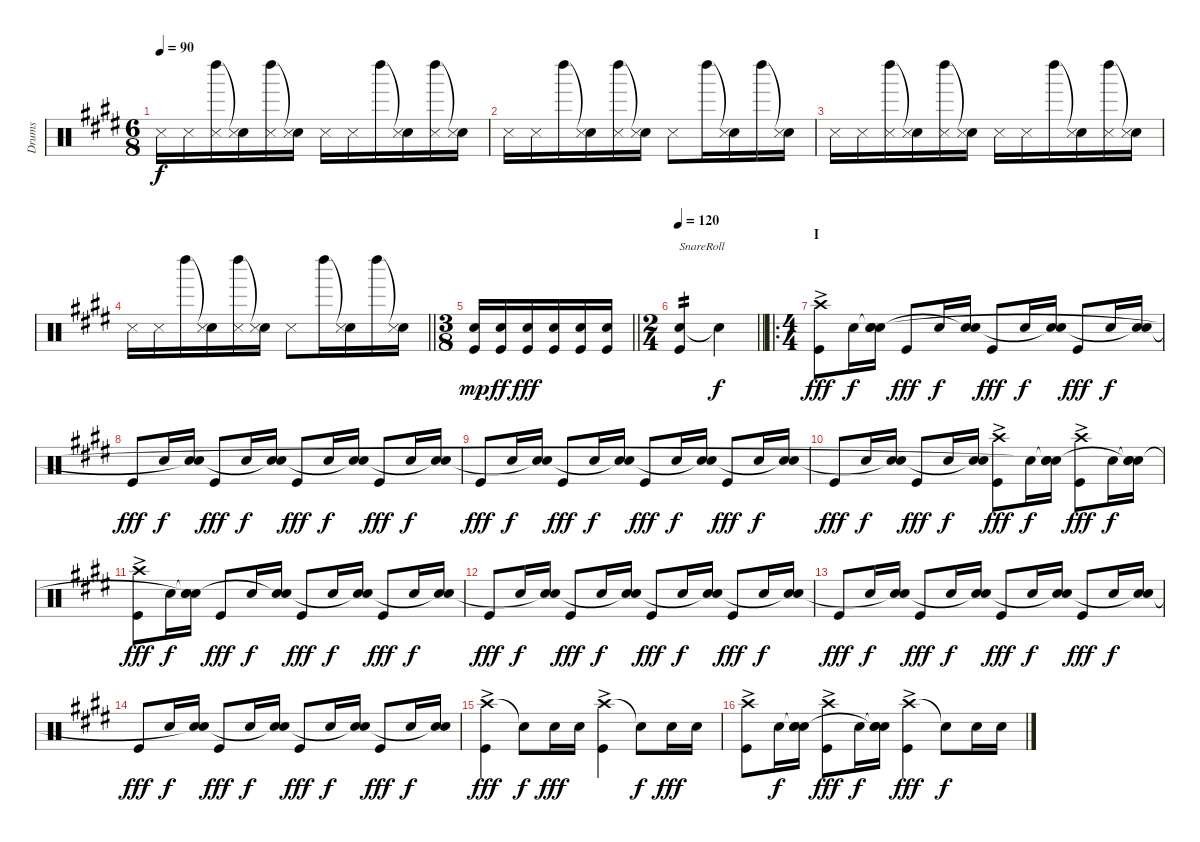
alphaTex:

\track ("Drums" "Drums") {instrument percussion}
\staff {score}
\articulation defaults
\ts (6 8)
\tempo 90
\clef neutral
\ks e "Snare (side stick) 3".16{dy f} "Snare (side stick) 3".16
("Left Maraca (hit)" "Snare (side stick) 3").16 ("Snare (hit)"{t} "Snare (side stick) 3").16 ("Left Maraca (hit)" "Snare (side stick) 3").16 ("Snare (hit)"{t} "Snare (side stick) 3").16 "Snare (side stick) 3".16 "Snare (side stick) 3".16 "Left Maraca (hit)".16 ("Snare (hit)"{t} "Snare (side stick) 3").16 ("Left Maraca (hit)" "Snare (side stick) 3").16 ("Snare (hit)"{t} "Snare (side stick) 3").16 |
"Snare (side stick) 3".16 "Snare (side stick) 3".16 "Left Maraca (hit)".16 ("Snare (hit)"{t} "Snare (side stick) 3").16 ("Left Maraca (hit)" "Snare (side stick) 3").16 ("Snare (hit)"{t} "Snare (side stick) 3").16 "Snare (side stick) 3".8 "Left Maraca (hit)".16 ("Snare (hit)"{t} "Snare (side stick) 3").16 "Left Maraca (hit)".16 ("Snare (hit)"{t} "Snare (side stick) 3").16 |
"Snare (side stick) 3".16 "Snare (side stick) 3".16 ("Left Maraca (hit)" "Snare (side stick) 3").16 ("Snare (hit)"{t} "Snare (side stick) 3").16 ("Left Maraca (hit)" "Snare (side stick) 3").16 ("Snare (hit)"{t} "Snare (side stick) 3").16 "Snare (side stick) 3".16 "Snare (side stick) 3".16 "Left Maraca (hit)".16 ("Snare (hit)"{t} "Snare (side stick) 3").16 ("Left Maraca (hit)" "Snare (side stick) 3").16 ("Snare (hit)"{t} "Snare (side stick) 3").16 |
\barLineRight lightlight "Snare (side stick) 3".16 "Snare (side stick) 3".16 "Left Maraca (hit)".16
("Snare (hit)"{t} "Snare (side stick) 3").16 ("Left Maraca (hit)" "Snare (side stick) 3").16 ("Snare (hit)"{t} "Snare (side stick) 3").16 "Snare (side stick) 3".8 "Left Maraca (hit)".16 ("Snare (hit)"{t} "Snare (side stick) 3").16 "Left Maraca (hit)".16 ("Snare (hit)"{t} "Snare (side stick) 3").16 |
\ts (3 8)
\barLineRight lightlight
("Snare (hit) 2" "Kick (hit)").16{dy mp} ("Snare (hit) 2" "Kick (hit)").16{dy ff beam merge} ("Snare (hit) 2" "Kick (hit)").16{dy fff} ("Snare (hit) 2" "Kick (hit)").16{beam merge} ("Snare (hit) 2" "Kick (hit)").16 ("Snare (hit) 2" "Kick (hit)").16 |
\ts (2 4)
\tempo 120
\barLineRight lightlight
("Snare (hit) 2" "Kick (hit)").4{txt "SnareRoll" tp 2} "Snare (hit)"{t}.4{dy f} |
\ro
\ts (4 4)
\section ("" "I")
("Crash high (hit)"{ac} "Kick (hit)").8{dy fff} "Snare (hit) 2".16{dy f} ("Snare (hit)"{t} "Snare (hit) 2" "Snare (hit)").16 "Kick (hit)".8{dy fff} "Snare (hit) 2".16{dy f} ("Snare (hit) 2" "Snare (hit)"{t}).16 "Kick (hit)".8{dy fff} "Snare (hit) 2".16{dy f} ("Snare (hit) 2" "Snare (hit)"{t}).16 "Kick (hit)".8{dy fff} "Snare (hit) 2".16{dy f} ("Snare (hit) 2" "Snare (hit)"{t}).16 |
"Kick (hit)".8{dy fff} "Snare (hit) 2".16{dy f} ("Snare (hit) 2" "Snare (hit)"{t}).16 "Kick (hit)".8{dy fff} "Snare (hit) 2".16{dy f} ("Snare (hit) 2" "Snare (hit)"{t}).16 "Kick (hit)".8{dy fff} "Snare (hit) 2".16{dy f} ("Snare (hit) 2" "Snare (hit)"{t}).16 "Kick (hit)".8{dy fff} "Snare (hit) 2".16{dy f} ("Snare (hit) 2" "Snare (hit)"{t}).16 |
"Kick (hit)".8{dy fff} "Snare (hit) 2".16{dy f} ("Snare (hit) 2" "Snare (hit)"{t}).16 "Kick (hit)".8{dy fff} "Snare (hit) 2".16{dy f} ("Snare (hit) 2" "Snare (hit)"{t}).16 "Kick (hit)".8{dy fff} "Snare (hit) 2".16{dy f} ("Snare (hit) 2" "Snare (hit)"{t}).16 "Kick (hit)".8{dy fff} "Snare (hit) 2".16{dy f} ("Snare (hit) 2" "Snare (hit)"{t}).16 |
"Kick (hit)".8{dy fff} "Snare (hit) 2".16{dy f} ("Snare (hit) 2" "Snare (hit)"{t}).16 "Kick (hit)".8{dy fff} "Snare (hit) 2".16{dy f} ("Snare (hit) 2" "Snare (hit)"{t}).16 ("Crash high (hit)"{ac} "Kick (hit)").8{dy fff} "Snare (hit) 2".16{dy f} ("Snare (hit)"{t} "Snare (hit) 2" "Snare (hit)"{t}).16 ("Crash high (hit)"{ac} "Kick (hit)").8{dy fff} "Snare (hit) 2".16{dy f} ("Snare (hit)"{t} "Snare (hit) 2" "Snare (hit)"{t}).16 |
("Crash high (hit)"{ac} "Kick (hit)").8{dy fff} "Snare (hit) 2".16{dy f} ("Snare (hit)"{t} "Snare (hit) 2" "Snare (hit)"{t}).16 "Kick (hit)".8{dy fff} "Snare (hit) 2".16{dy f} ("Snare (hit) 2" "Snare (hit)"{t}).16 "Kick (hit)".8{dy fff} "Snare (hit) 2".16{dy f} ("Snare (hit) 2" "Snare (hit)"{t}).16 "Kick (hit)".8{dy fff} "Snare (hit) 2".16{dy f} ("Snare (hit) 2" "Snare (hit)"{t}).16 |
"Kick (hit)".8{dy fff} "Snare (hit) 2".16{dy f} ("Snare (hit) 2" "Snare (hit)"{t}).16 "Kick (hit)".8{dy fff} "Snare (hit) 2".16{dy f} ("Snare (hit) 2" "Snare (hit)"{t}).16 "Kick (hit)".8{dy fff} "Snare (hit) 2".16{dy f} ("Snare (hit) 2" "Snare (hit)"{t}).16 "Kick (hit)".8{dy fff} "Snare (hit) 2".16{dy f} ("Snare (hit) 2" "Snare (hit)"{t}).16 |
"Kick (hit)".8{dy fff} "Snare (hit) 2".16{dy f} ("Snare (hit) 2" "Snare (hit)"{t}).16 "Kick (hit)".8{dy fff} "Snare (hit) 2".16{dy f} ("Snare (hit) 2" "Snare (hit)"{t}).16 "Kick (hit)".8{dy fff} "Snare (hit) 2".16{dy f} ("Snare (hit) 2" "Snare (hit)"{t}).16 "Kick (hit)".8{dy fff} "Snare (hit) 2".16{dy f} ("Snare (hit) 2" "Snare (hit)"{t}).16 |
"Kick (hit)".8{dy fff} "Snare (hit) 2".16{dy f} ("Snare (hit) 2" "Snare (hit)"{t}).16 "Kick (hit)".8{dy fff} "Snare (hit) 2".16{dy f} ("Snare (hit) 2" "Snare (hit)"{t}).16 "Kick (hit)".8{dy fff} "Snare (hit) 2".16{dy f} ("Snare (hit) 2" "Snare (hit)"{t}).16 "Kick (hit)".8{dy fff} "Snare (hit) 2".16{dy f} ("Snare (hit) 2" "Snare (hit)"{t}).16 |
("Crash high (hit)"{ac} "Kick (hit)").4{dy fff} "Snare (hit)"{t}.8{dy f} "Snare (hit) 2".16{dy fff} "Snare (hit) 2".16 ("Crash high (hit)"{ac} "Kick (hit)").4 "Snare (hit)"{t}.8{dy f} "Snare (hit) 2".16{dy fff} "Snare (hit) 2".16 |
("Crash high (hit)"{ac} "Kick (hit)").8 "Snare (hit) 2".16{dy f} ("Snare (hit)"{t} "Snare (hit) 2" "Snare (hit)").16 ("Crash high (hit)"{ac} "Kick (hit)").8{dy fff} "Snare (hit) 2".16{dy f} ("Snare (hit)"{t} "Snare (hit) 2" "Snare (hit)"{t}).16 ("Crash high (hit)"{ac} "Kick (hit)").4{dy fff} "Snare (hit)"{t}.8{dy f} "Snare (hit) 2".16 "Snare (hit) 2".16
